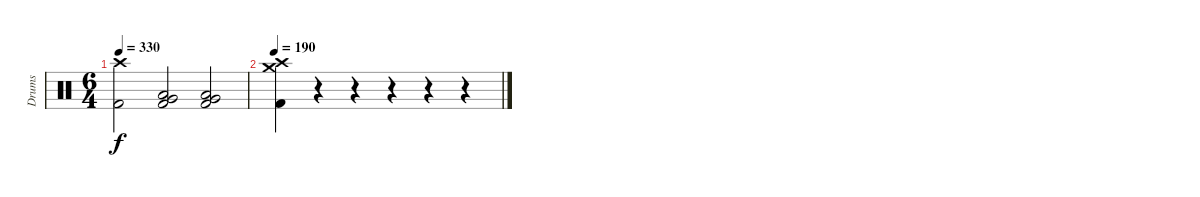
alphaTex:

\track ("Drums" "Drums") {instrument percussion}
\staff {score}
\articulation defaults
\ts (6 4)
\tempo 330
\clef neutral
\ks c
("Crash high (hit)" "Kick (hit) 2").2{dy f} ("Very Low Tom (hit)" "Low Tom (hit)" "Kick (hit) 2").2 ("Very Low Tom (hit)" "Low Tom (hit)" "Kick (hit) 2").2 |
\tempo 190
("Crash high (hit)" "Crash medium (hit)" "Kick (hit) 2").4 r.4 r.4 r.4 r.4 r.4
